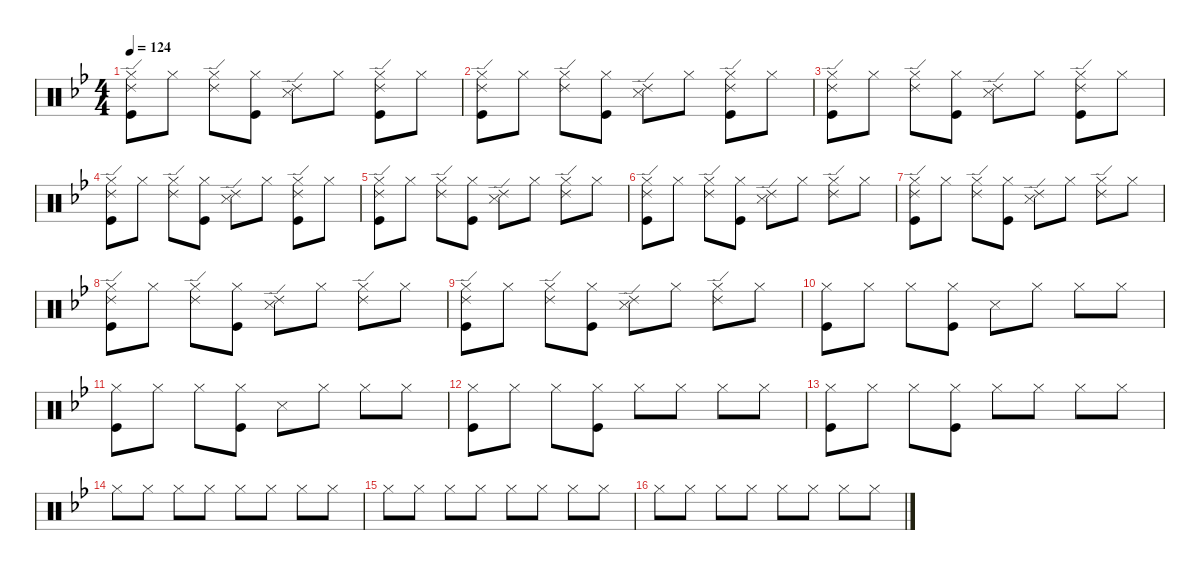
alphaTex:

\defaultSystemsLayout 4
\hideDynamics
\bracketExtendMode nobrackets
\singleTrackTrackNamePolicy hidden
\multiTrackTrackNamePolicy hidden
\firstSystemTrackNameMode fullname
\firstSystemTrackNameOrientation horizontal
\otherSystemsTrackNameOrientation horizontal
\track ("Percussion" "drm.") {instrument percussion}
\staff {score}
\articulation defaults
\ts (4 4)
\tempo 124
\clef neutral
\ks gminor
("Ride (edge) 2"{acc forcenatural} "Hi-Hat (closed)"{acc forcenatural} "Kick (hit)"{acc forcenatural}).8{dy f beam Down} "Hi-Hat (closed)"{acc forcenatural}.8{beam Down} ("Ride (edge) 2"{acc forcenatural} "Hi-Hat (closed)"{acc forcenatural}).8{beam Down} ("Hi-Hat (closed)"{acc forcenatural} "Kick (hit)"{acc forcenatural}).8{beam Down} ("Ride (edge) 2"{acc forcenatural} "Snare (side stick) 3"{acc forcenatural}).8{beam Down} "Hi-Hat (closed)"{acc forcenatural}.8{beam Down} ("Ride (edge) 2"{acc forcenatural} "Hi-Hat (closed)"{acc forcenatural} "Kick (hit)"{acc forcenatural}).8{beam Down} "Hi-Hat (closed)"{acc forcenatural}.8{beam Down} |
("Ride (edge) 2"{acc forcenatural} "Hi-Hat (closed)"{acc forcenatural} "Kick (hit)"{acc forcenatural}).8{beam Down} "Hi-Hat (closed)"{acc forcenatural}.8{beam Down} ("Ride (edge) 2"{acc forcenatural} "Hi-Hat (closed)"{acc forcenatural}).8{beam Down} ("Hi-Hat (closed)"{acc forcenatural} "Kick (hit)"{acc forcenatural}).8{beam Down} ("Ride (edge) 2"{acc forcenatural} "Snare (side stick) 3"{acc forcenatural}).8{beam Down} "Hi-Hat (closed)"{acc forcenatural}.8{beam Down} ("Ride (edge) 2"{acc forcenatural} "Hi-Hat (closed)"{acc forcenatural} "Kick (hit)"{acc forcenatural}).8{beam Down} "Hi-Hat (closed)"{acc forcenatural}.8{beam Down} |
("Ride (edge) 2"{acc forcenatural} "Hi-Hat (closed)"{acc forcenatural} "Kick (hit)"{acc forcenatural}).8{beam Down} "Hi-Hat (closed)"{acc forcenatural}.8{beam Down} ("Ride (edge) 2"{acc forcenatural} "Hi-Hat (closed)"{acc forcenatural}).8{beam Down} ("Hi-Hat (closed)"{acc forcenatural} "Kick (hit)"{acc forcenatural}).8{beam Down} ("Ride (edge) 2"{acc forcenatural} "Snare (side stick) 3"{acc forcenatural}).8{beam Down} "Hi-Hat (closed)"{acc forcenatural}.8{beam Down} ("Ride (edge) 2"{acc forcenatural} "Hi-Hat (closed)"{acc forcenatural} "Kick (hit)"{acc forcenatural}).8{beam Down} "Hi-Hat (closed)"{acc forcenatural}.8{beam Down} |
("Ride (edge) 2"{acc forcenatural} "Hi-Hat (closed)"{acc forcenatural} "Kick (hit)"{acc forcenatural}).8{beam Down} "Hi-Hat (closed)"{acc forcenatural}.8{beam Down} ("Ride (edge) 2"{acc forcenatural} "Hi-Hat (closed)"{acc forcenatural}).8{beam Down} ("Hi-Hat (closed)"{acc forcenatural} "Kick (hit)"{acc forcenatural}).8{beam Down} ("Ride (edge) 2"{acc forcenatural} "Snare (side stick) 3"{acc forcenatural}).8{beam Down} "Hi-Hat (closed)"{acc forcenatural}.8{beam Down} ("Ride (edge) 2"{acc forcenatural} "Hi-Hat (closed)"{acc forcenatural} "Kick (hit)"{acc forcenatural}).8{beam Down} "Hi-Hat (closed)"{acc forcenatural}.8{beam Down} |
("Ride (edge) 2"{acc forcenatural} "Hi-Hat (closed)"{acc forcenatural} "Kick (hit)"{acc forcenatural}).8{beam Down} "Hi-Hat (closed)"{acc forcenatural}.8{beam Down} ("Ride (edge) 2"{acc forcenatural} "Hi-Hat (closed)"{acc forcenatural}).8{beam Down} ("Hi-Hat (closed)"{acc forcenatural} "Kick (hit)"{acc forcenatural}).8{beam Down} ("Ride (edge) 2"{acc forcenatural} "Snare (side stick) 3"{acc forcenatural}).8{beam Down} "Hi-Hat (closed)"{acc forcenatural}.8{beam Down} ("Ride (edge) 2"{acc forcenatural} "Hi-Hat (closed)"{acc forcenatural}).8{beam Down} "Hi-Hat (closed)"{acc forcenatural}.8{beam Down} |
("Ride (edge) 2"{acc forcenatural} "Hi-Hat (closed)"{acc forcenatural} "Kick (hit)"{acc forcenatural}).8{beam Down} "Hi-Hat (closed)"{acc forcenatural}.8{beam Down} ("Ride (edge) 2"{acc forcenatural} "Hi-Hat (closed)"{acc forcenatural}).8{beam Down} ("Hi-Hat (closed)"{acc forcenatural} "Kick (hit)"{acc forcenatural}).8{beam Down} ("Ride (edge) 2"{acc forcenatural} "Snare (side stick) 3"{acc forcenatural}).8{beam Down} "Hi-Hat (closed)"{acc forcenatural}.8{beam Down} ("Ride (edge) 2"{acc forcenatural} "Hi-Hat (closed)"{acc forcenatural}).8{beam Down} "Hi-Hat (closed)"{acc forcenatural}.8{beam Down} |
("Ride (edge) 2"{acc forcenatural} "Hi-Hat (closed)"{acc forcenatural} "Kick (hit)"{acc forcenatural}).8{beam Down} "Hi-Hat (closed)"{acc forcenatural}.8{beam Down} ("Ride (edge) 2"{acc forcenatural} "Hi-Hat (closed)"{acc forcenatural}).8{beam Down} ("Hi-Hat (closed)"{acc forcenatural} "Kick (hit)"{acc forcenatural}).8{beam Down} ("Ride (edge) 2"{acc forcenatural} "Snare (side stick) 3"{acc forcenatural}).8{beam Down} "Hi-Hat (closed)"{acc forcenatural}.8{beam Down} ("Ride (edge) 2"{acc forcenatural} "Hi-Hat (closed)"{acc forcenatural}).8{beam Down} "Hi-Hat (closed)"{acc forcenatural}.8{beam Down} |
("Ride (edge) 2"{acc forcenatural} "Hi-Hat (closed)"{acc forcenatural} "Kick (hit)"{acc forcenatural}).8{beam Down} "Hi-Hat (closed)"{acc forcenatural}.8{beam Down} ("Ride (edge) 2"{acc forcenatural} "Hi-Hat (closed)"{acc forcenatural}).8{beam Down} ("Hi-Hat (closed)"{acc forcenatural} "Kick (hit)"{acc forcenatural}).8{beam Down} ("Ride (edge) 2"{acc forcenatural} "Snare (side stick) 3"{acc forcenatural}).8{beam Down} "Hi-Hat (closed)"{acc forcenatural}.8{beam Down} ("Ride (edge) 2"{acc forcenatural} "Hi-Hat (closed)"{acc forcenatural}).8{beam Down} "Hi-Hat (closed)"{acc forcenatural}.8{beam Down} |
("Ride (edge) 2"{acc forcenatural} "Hi-Hat (closed)"{acc forcenatural} "Kick (hit)"{acc forcenatural}).8{beam Down} "Hi-Hat (closed)"{acc forcenatural}.8{beam Down} ("Ride (edge) 2"{acc forcenatural} "Hi-Hat (closed)"{acc forcenatural}).8{beam Down} ("Hi-Hat (closed)"{acc forcenatural} "Kick (hit)"{acc forcenatural}).8{beam Down} ("Ride (edge) 2"{acc forcenatural} "Snare (side stick) 3"{acc forcenatural}).8{beam Down} "Hi-Hat (closed)"{acc forcenatural}.8{beam Down} ("Ride (edge) 2"{acc forcenatural} "Hi-Hat (closed)"{acc forcenatural}).8{beam Down} "Hi-Hat (closed)"{acc forcenatural}.8{beam Down} |
("Hi-Hat (closed)"{acc forcenatural} "Kick (hit)"{acc forcenatural}).8{beam Down} "Hi-Hat (closed)"{acc forcenatural}.8{beam Down} "Hi-Hat (closed)"{acc forcenatural}.8{beam Down} ("Hi-Hat (closed)"{acc forcenatural} "Kick (hit)"{acc forcenatural}).8{beam Down} "Snare (side stick) 3"{acc forcenatural}.8{beam Down} "Hi-Hat (closed)"{acc forcenatural}.8{beam Down} "Hi-Hat (closed)"{acc forcenatural}.8{beam Down} "Hi-Hat (closed)"{acc forcenatural}.8{beam Down} |
("Hi-Hat (closed)"{acc forcenatural} "Kick (hit)"{acc forcenatural}).8{beam Down} "Hi-Hat (closed)"{acc forcenatural}.8{beam Down} "Hi-Hat (closed)"{acc forcenatural}.8{beam Down} ("Hi-Hat (closed)"{acc forcenatural} "Kick (hit)"{acc forcenatural}).8{beam Down} "Snare (side stick) 3"{acc forcenatural}.8{beam Down} "Hi-Hat (closed)"{acc forcenatural}.8{beam Down} "Hi-Hat (closed)"{acc forcenatural}.8{beam Down} "Hi-Hat (closed)"{acc forcenatural}.8{beam Down} |
("Hi-Hat (closed)"{acc forcenatural} "Kick (hit)"{acc forcenatural}).8{beam Down} "Hi-Hat (closed)"{acc forcenatural}.8{beam Down} "Hi-Hat (closed)"{acc forcenatural}.8{beam Down} ("Hi-Hat (closed)"{acc forcenatural} "Kick (hit)"{acc forcenatural}).8{beam Down} "Hi-Hat (closed)"{acc forcenatural}.8{beam Down} "Hi-Hat (closed)"{acc forcenatural}.8{beam Down} "Hi-Hat (closed)"{acc forcenatural}.8{beam Down} "Hi-Hat (closed)"{acc forcenatural}.8{beam Down} |
("Hi-Hat (closed)"{acc forcenatural} "Kick (hit)"{acc forcenatural}).8{beam Down} "Hi-Hat (closed)"{acc forcenatural}.8{beam Down} "Hi-Hat (closed)"{acc forcenatural}.8{beam Down} ("Hi-Hat (closed)"{acc forcenatural} "Kick (hit)"{acc forcenatural}).8{beam Down} "Hi-Hat (closed)"{acc forcenatural}.8{beam Down} "Hi-Hat (closed)"{acc forcenatural}.8{beam Down} "Hi-Hat (closed)"{acc forcenatural}.8{beam Down} "Hi-Hat (closed)"{acc forcenatural}.8{beam Down} |
"Hi-Hat (closed)"{acc forcenatural}.8{beam Down} "Hi-Hat (closed)"{acc forcenatural}.8{beam Down} "Hi-Hat (closed)"{acc forcenatural}.8{beam Down} "Hi-Hat (closed)"{acc forcenatural}.8{beam Down} "Hi-Hat (closed)"{acc forcenatural}.8{beam Down} "Hi-Hat (closed)"{acc forcenatural}.8{beam Down} "Hi-Hat (closed)"{acc forcenatural}.8{beam Down} "Hi-Hat (closed)"{acc forcenatural}.8{beam Down} |
"Hi-Hat (closed)"{acc forcenatural}.8{beam Down} "Hi-Hat (closed)"{acc forcenatural}.8{beam Down} "Hi-Hat (closed)"{acc forcenatural}.8{beam Down} "Hi-Hat (closed)"{acc forcenatural}.8{beam Down} "Hi-Hat (closed)"{acc forcenatural}.8{beam Down} "Hi-Hat (closed)"{acc forcenatural}.8{beam Down} "Hi-Hat (closed)"{acc forcenatural}.8{beam Down} "Hi-Hat (closed)"{acc forcenatural}.8{beam Down} |
"Hi-Hat (closed)"{acc forcenatural}.8{beam Down} "Hi-Hat (closed)"{acc forcenatural}.8{beam Down} "Hi-Hat (closed)"{acc forcenatural}.8{beam Down} "Hi-Hat (closed)"{acc forcenatural}.8{beam Down} "Hi-Hat (closed)"{acc forcenatural}.8{beam Down} "Hi-Hat (closed)"{acc forcenatural}.8{beam Down} "Hi-Hat (closed)"{acc forcenatural}.8{beam Down} "Hi-Hat (closed)"{acc forcenatural}.8{beam Down}
